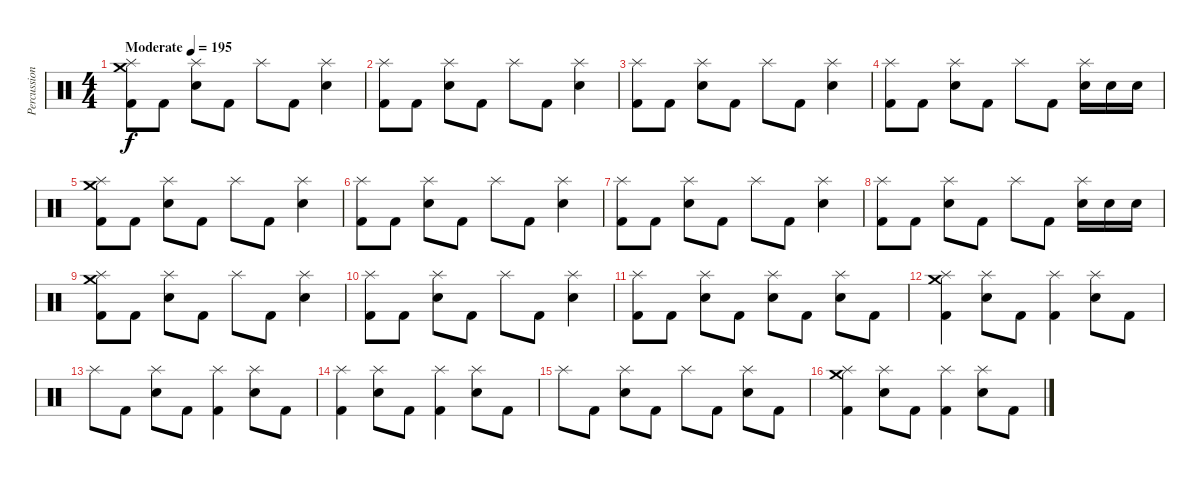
\track ("Percussion" "Percussion") {instrument percussion}
\staff {score}
\articulation defaults
\ts (4 4)
\tempo (195 "Moderate")
\clef neutral
\ks c
("Crash medium (hit)" "Splash (hit)" "Kick (hit) 2").8{dy f} "Kick (hit) 2".8 ("Splash (hit)" "Electric Snare (hit)").8 "Kick (hit) 2".8 "Splash (hit)".8 "Kick (hit) 2".8 ("Splash (hit)" "Electric Snare (hit)").4 |
("Splash (hit)" "Kick (hit) 2").8 "Kick (hit) 2".8 ("Splash (hit)" "Electric Snare (hit)").8 "Kick (hit) 2".8 "Splash (hit)".8 "Kick (hit) 2".8 ("Splash (hit)" "Electric Snare (hit)").4 |
("Splash (hit)" "Kick (hit) 2").8 "Kick (hit) 2".8 ("Splash (hit)" "Electric Snare (hit)").8 "Kick (hit) 2".8 "Splash (hit)".8 "Kick (hit) 2".8 ("Splash (hit)" "Electric Snare (hit)").4 |
("Splash (hit)" "Kick (hit) 2").8 "Kick (hit) 2".8 ("Splash (hit)" "Electric Snare (hit)").8 "Kick (hit) 2".8 "Splash (hit)".8 "Kick (hit) 2".8 ("Splash (hit)" "Electric Snare (hit)").16 "Electric Snare (hit)".16{volume 10} "Electric Snare (hit)".16 |
("Crash medium (hit)" "Splash (hit)" "Kick (hit) 2").8{volume 13} "Kick (hit) 2".8 ("Splash (hit)" "Electric Snare (hit)").8 "Kick (hit) 2".8 "Splash (hit)".8 "Kick (hit) 2".8 ("Splash (hit)" "Electric Snare (hit)").4 |
("Splash (hit)" "Kick (hit) 2").8 "Kick (hit) 2".8 ("Splash (hit)" "Electric Snare (hit)").8 "Kick (hit) 2".8 "Splash (hit)".8 "Kick (hit) 2".8 ("Splash (hit)" "Electric Snare (hit)").4 |
("Splash (hit)" "Kick (hit) 2").8 "Kick (hit) 2".8 ("Splash (hit)" "Electric Snare (hit)").8 "Kick (hit) 2".8 "Splash (hit)".8 "Kick (hit) 2".8 ("Splash (hit)" "Electric Snare (hit)").4 |
("Splash (hit)" "Kick (hit) 2").8 "Kick (hit) 2".8 ("Splash (hit)" "Electric Snare (hit)").8 "Kick (hit) 2".8 "Splash (hit)".8 "Kick (hit) 2".8 ("Splash (hit)" "Electric Snare (hit)").16 "Electric Snare (hit)".16{volume 10} "Electric Snare (hit)".16 |
("Crash medium (hit)" "Splash (hit)" "Kick (hit) 2").8{volume 13} "Kick (hit) 2".8 ("Splash (hit)" "Electric Snare (hit)").8 "Kick (hit) 2".8 "Splash (hit)".8 "Kick (hit) 2".8 ("Splash (hit)" "Electric Snare (hit)").4 |
("Splash (hit)" "Kick (hit) 2").8 "Kick (hit) 2".8 ("Splash (hit)" "Electric Snare (hit)").8 "Kick (hit) 2".8 "Splash (hit)".8 "Kick (hit) 2".8 ("Splash (hit)" "Electric Snare (hit)").4 |
("Splash (hit)" "Kick (hit) 2").8 "Kick (hit) 2".8 ("Splash (hit)" "Electric Snare (hit)").8 "Kick (hit) 2".8 ("Splash (hit)" "Electric Snare (hit)").8 "Kick (hit) 2".8 ("Splash (hit)" "Electric Snare (hit)").8 "Kick (hit) 2".8 |
("Crash medium (hit)" "Splash (hit)" "Kick (hit) 2").4 ("Splash (hit)" "Electric Snare (hit)").8 "Kick (hit) 2".8 ("Splash (hit)" "Kick (hit) 2").4 ("Splash (hit)" "Electric Snare (hit)").8 "Kick (hit) 2".8 |
"Splash (hit)".8 "Kick (hit) 2".8 ("Splash (hit)" "Electric Snare (hit)").8 "Kick (hit) 2".8 ("Splash (hit)" "Kick (hit) 2").4 ("Splash (hit)" "Electric Snare (hit)").8 "Kick (hit) 2".8 |
("Splash (hit)" "Kick (hit) 2").4 ("Splash (hit)" "Electric Snare (hit)").8 "Kick (hit) 2".8 ("Splash (hit)" "Kick (hit) 2").4 ("Splash (hit)" "Electric Snare (hit)").8 "Kick (hit) 2".8 |
"Splash (hit)".8 "Kick (hit) 2".8 ("Splash (hit)" "Electric Snare (hit)").8 "Kick (hit) 2".8 "Splash (hit)".8 "Kick (hit) 2".8 ("Splash (hit)" "Electric Snare (hit)").8 "Kick (hit) 2".8 |
("Crash medium (hit)" "Splash (hit)" "Kick (hit) 2").4 ("Splash (hit)" "Electric Snare (hit)").8 "Kick (hit) 2".8 ("Splash (hit)" "Kick (hit) 2").4 ("Splash (hit)" "Electric Snare (hit)").8 "Kick (hit) 2".8
